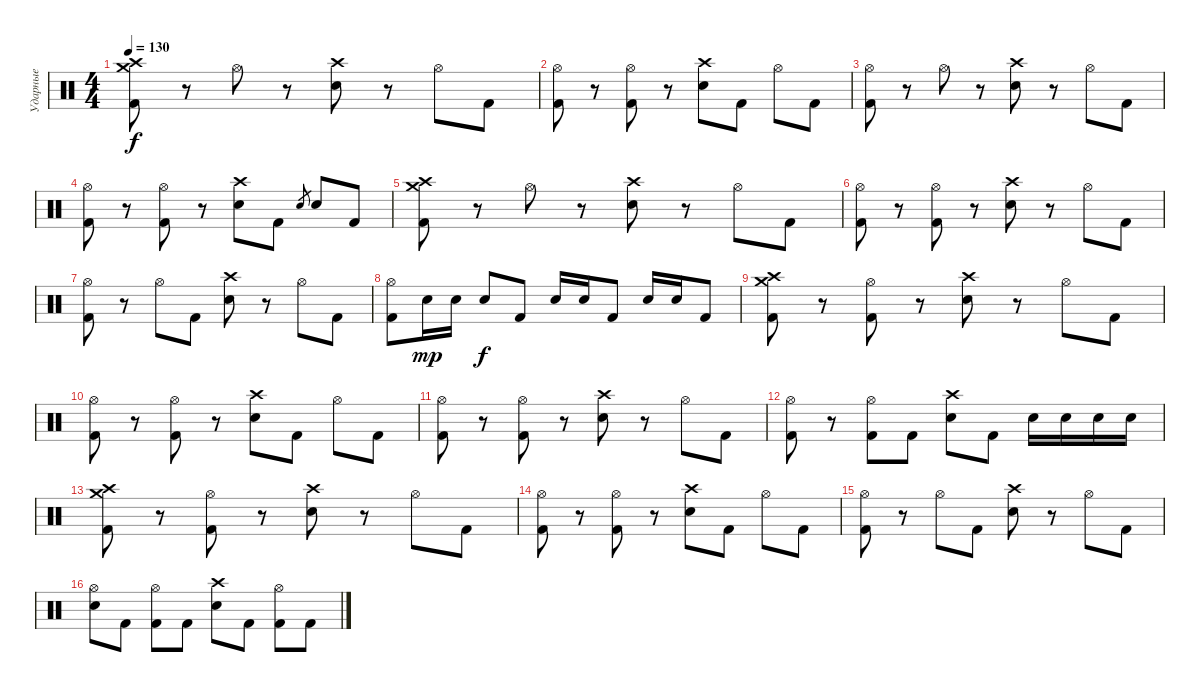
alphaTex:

\track ("Ударные" "Ударные") {instrument percussion}
\staff {score}
\articulation defaults
\ts (4 4)
\tempo 130
\clef neutral
\ks c
("Crash medium (hit)" "Crash high (hit)" "Kick (hit) 2").8{dy f} r.8 "Hi-Hat (open)".8 r.8 ("Crash high (hit)" "Electric Snare (hit)").8 r.8 "Hi-Hat (open)".8 "Kick (hit) 2".8 |
("Hi-Hat (open)" "Kick (hit) 2").8 r.8 ("Hi-Hat (open)" "Kick (hit) 2").8 r.8 ("Crash high (hit)" "Electric Snare (hit)").8 "Kick (hit) 2".8 "Hi-Hat (open)".8 "Kick (hit) 2".8 |
("Hi-Hat (open)" "Kick (hit) 2").8 r.8 "Hi-Hat (open)".8 r.8 ("Crash high (hit)" "Electric Snare (hit)").8 r.8 "Hi-Hat (open)".8 "Kick (hit) 2".8 |
("Hi-Hat (open)" "Kick (hit) 2").8 r.8 ("Hi-Hat (open)" "Kick (hit) 2").8 r.8 ("Crash high (hit)" "Electric Snare (hit)").8 "Kick (hit) 2".8 "Electric Snare (hit)".8{gr} "Electric Snare (hit)".8 "Kick (hit) 2".8 |
("Crash medium (hit)" "Crash high (hit)" "Kick (hit) 2").8 r.8 "Hi-Hat (open)".8 r.8 ("Crash high (hit)" "Electric Snare (hit)").8 r.8 "Hi-Hat (open)".8 "Kick (hit) 2".8 |
("Hi-Hat (open)" "Kick (hit) 2").8 r.8 ("Hi-Hat (open)" "Kick (hit) 2").8 r.8 ("Crash high (hit)" "Electric Snare (hit)").8 r.8 "Hi-Hat (open)".8 "Kick (hit) 2".8 |
("Hi-Hat (open)" "Kick (hit) 2").8 r.8 "Hi-Hat (open)".8 "Kick (hit) 2".8 ("Crash high (hit)" "Electric Snare (hit)").8 r.8 "Hi-Hat (open)".8 "Kick (hit) 2".8 |
("Hi-Hat (open)" "Kick (hit) 2").8 "Electric Snare (hit)".16{dy mp} "Electric Snare (hit)".16 "Electric Snare (hit)".8{dy f} "Kick (hit) 2".8 "Electric Snare (hit)".16 "Electric Snare (hit)".16 "Kick (hit) 2".8 "Electric Snare (hit)".16 "Electric Snare (hit)".16 "Kick (hit) 2".8 |
("Crash medium (hit)" "Crash high (hit)" "Kick (hit) 2").8 r.8 ("Hi-Hat (open)" "Kick (hit) 2").8 r.8 ("Crash high (hit)" "Electric Snare (hit)").8 r.8 "Hi-Hat (open)".8 "Kick (hit) 2".8 |
("Hi-Hat (open)" "Kick (hit) 2").8 r.8 ("Hi-Hat (open)" "Kick (hit) 2").8 r.8 ("Crash high (hit)" "Electric Snare (hit)").8 "Kick (hit) 2".8 "Hi-Hat (open)".8 "Kick (hit) 2".8 |
("Hi-Hat (open)" "Kick (hit) 2").8 r.8 ("Hi-Hat (open)" "Kick (hit) 2").8 r.8 ("Crash high (hit)" "Electric Snare (hit)").8 r.8 "Hi-Hat (open)".8 "Kick (hit) 2".8 |
("Hi-Hat (open)" "Kick (hit) 2").8 r.8 ("Hi-Hat (open)" "Kick (hit) 2").8 "Kick (hit) 2".8 ("Crash high (hit)" "Electric Snare (hit)").8 "Kick (hit) 2".8 "Electric Snare (hit)".16 "Electric Snare (hit)".16 "Electric Snare (hit)".16 "Electric Snare (hit)".16 |
("Crash medium (hit)" "Crash high (hit)" "Kick (hit) 2").8 r.8 ("Hi-Hat (open)" "Kick (hit) 2").8 r.8 ("Crash high (hit)" "Electric Snare (hit)").8 r.8 "Hi-Hat (open)".8 "Kick (hit) 2".8 |
("Hi-Hat (open)" "Kick (hit) 2").8 r.8 ("Hi-Hat (open)" "Kick (hit) 2").8 r.8 ("Crash high (hit)" "Electric Snare (hit)").8 "Kick (hit) 2".8 "Hi-Hat (open)".8 "Kick (hit) 2".8 |
("Hi-Hat (open)" "Kick (hit) 2").8 r.8 "Hi-Hat (open)".8 "Kick (hit) 2".8 ("Crash high (hit)" "Electric Snare (hit)").8 r.8 "Hi-Hat (open)".8 "Kick (hit) 2".8 |
("Hi-Hat (open)" "Electric Snare (hit)").8 "Kick (hit) 2".8 ("Hi-Hat (open)" "Kick (hit) 2").8 "Kick (hit) 2".8 ("Crash high (hit)" "Electric Snare (hit)").8 "Kick (hit) 2".8 ("Hi-Hat (open)" "Kick (hit) 2").8 "Kick (hit) 2".8
